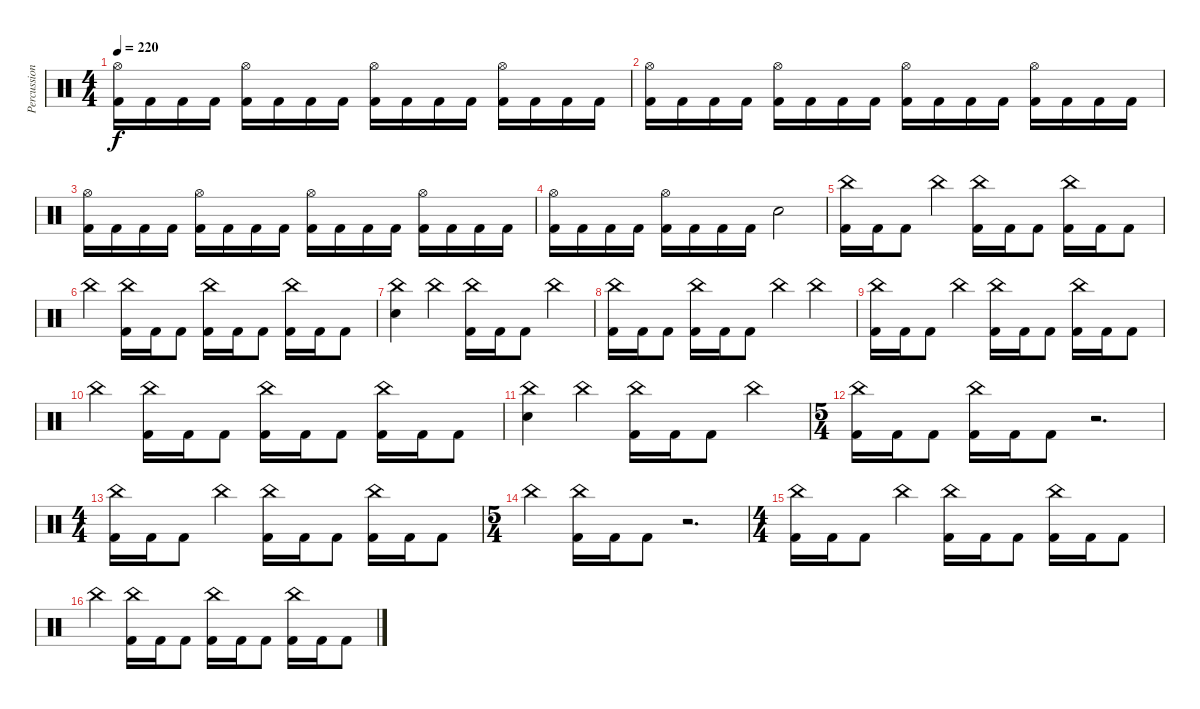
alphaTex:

\track ("Percussion" "Percussion") {instrument percussion}
\staff {score}
\articulation defaults
\ts (4 4)
\tempo 220
\clef neutral
\ks c
("Hi-Hat (open)" "Kick (hit) 2").16{dy f} "Kick (hit) 2".16 "Kick (hit) 2".16 "Kick (hit) 2".16 ("Hi-Hat (open)" "Kick (hit) 2").16 "Kick (hit) 2".16 "Kick (hit) 2".16 "Kick (hit) 2".16 ("Hi-Hat (open)" "Kick (hit) 2").16 "Kick (hit) 2".16 "Kick (hit) 2".16 "Kick (hit) 2".16 ("Hi-Hat (open)" "Kick (hit) 2").16 "Kick (hit) 2".16 "Kick (hit) 2".16 "Kick (hit) 2".16 |
("Hi-Hat (open)" "Kick (hit) 2").16 "Kick (hit) 2".16 "Kick (hit) 2".16 "Kick (hit) 2".16 ("Hi-Hat (open)" "Kick (hit) 2").16 "Kick (hit) 2".16 "Kick (hit) 2".16 "Kick (hit) 2".16 ("Hi-Hat (open)" "Kick (hit) 2").16 "Kick (hit) 2".16 "Kick (hit) 2".16 "Kick (hit) 2".16 ("Hi-Hat (open)" "Kick (hit) 2").16 "Kick (hit) 2".16 "Kick (hit) 2".16 "Kick (hit) 2".16 |
("Hi-Hat (open)" "Kick (hit) 2").16 "Kick (hit) 2".16 "Kick (hit) 2".16 "Kick (hit) 2".16 ("Hi-Hat (open)" "Kick (hit) 2").16 "Kick (hit) 2".16 "Kick (hit) 2".16 "Kick (hit) 2".16 ("Hi-Hat (open)" "Kick (hit) 2").16 "Kick (hit) 2".16 "Kick (hit) 2".16 "Kick (hit) 2".16 ("Hi-Hat (open)" "Kick (hit) 2").16 "Kick (hit) 2".16 "Kick (hit) 2".16 "Kick (hit) 2".16 |
("Hi-Hat (open)" "Kick (hit) 2").16 "Kick (hit) 2".16 "Kick (hit) 2".16 "Kick (hit) 2".16 ("Hi-Hat (open)" "Kick (hit) 2").16 "Kick (hit) 2".16 "Kick (hit) 2".16 "Kick (hit) 2".16 "Electric Snare (hit)".2 |
("China (hit)" "Kick (hit) 2").16 "Kick (hit) 2".16 "Kick (hit) 2".8 "China (hit)".4 ("China (hit)" "Kick (hit) 2").16 "Kick (hit) 2".16 "Kick (hit) 2".8 ("China (hit)" "Kick (hit) 2").16 "Kick (hit) 2".16 "Kick (hit) 2".8 |
"China (hit)".4 ("China (hit)" "Kick (hit) 2").16 "Kick (hit) 2".16 "Kick (hit) 2".8 ("China (hit)" "Kick (hit) 2").16 "Kick (hit) 2".16 "Kick (hit) 2".8 ("China (hit)" "Kick (hit) 2").16 "Kick (hit) 2".16 "Kick (hit) 2".8 |
("China (hit)" "Electric Snare (hit)").4 "China (hit)".4 ("China (hit)" "Kick (hit) 2").16 "Kick (hit) 2".16 "Kick (hit) 2".8 "China (hit)".4 |
("China (hit)" "Kick (hit) 2").16 "Kick (hit) 2".16 "Kick (hit) 2".8 ("China (hit)" "Kick (hit) 2").16 "Kick (hit) 2".16 "Kick (hit) 2".8 "China (hit)".4 "China (hit)".4 |
("China (hit)" "Kick (hit) 2").16 "Kick (hit) 2".16 "Kick (hit) 2".8 "China (hit)".4 ("China (hit)" "Kick (hit) 2").16 "Kick (hit) 2".16 "Kick (hit) 2".8 ("China (hit)" "Kick (hit) 2").16 "Kick (hit) 2".16 "Kick (hit) 2".8 |
"China (hit)".4 ("China (hit)" "Kick (hit) 2").16 "Kick (hit) 2".16 "Kick (hit) 2".8 ("China (hit)" "Kick (hit) 2").16 "Kick (hit) 2".16 "Kick (hit) 2".8 ("China (hit)" "Kick (hit) 2").16 "Kick (hit) 2".16 "Kick (hit) 2".8 |
("China (hit)" "Electric Snare (hit)").4 "China (hit)".4 ("China (hit)" "Kick (hit) 2").16 "Kick (hit) 2".16 "Kick (hit) 2".8 "China (hit)".4 |
\ts (5 4)
("China (hit)" "Kick (hit) 2").16 "Kick (hit) 2".16 "Kick (hit) 2".8 ("China (hit)" "Kick (hit) 2").16 "Kick (hit) 2".16 "Kick (hit) 2".8 r.2{d} |
\ts (4 4)
("China (hit)" "Kick (hit) 2").16 "Kick (hit) 2".16 "Kick (hit) 2".8 "China (hit)".4 ("China (hit)" "Kick (hit) 2").16 "Kick (hit) 2".16 "Kick (hit) 2".8 ("China (hit)" "Kick (hit) 2").16 "Kick (hit) 2".16 "Kick (hit) 2".8 |
\ts (5 4)
"China (hit)".4 ("China (hit)" "Kick (hit) 2").16 "Kick (hit) 2".16 "Kick (hit) 2".8 r.2{d} |
\ts (4 4)
("China (hit)" "Kick (hit) 2").16 "Kick (hit) 2".16 "Kick (hit) 2".8 "China (hit)".4 ("China (hit)" "Kick (hit) 2").16 "Kick (hit) 2".16 "Kick (hit) 2".8 ("China (hit)" "Kick (hit) 2").16 "Kick (hit) 2".16 "Kick (hit) 2".8 |
"China (hit)".4 ("China (hit)" "Kick (hit) 2").16 "Kick (hit) 2".16 "Kick (hit) 2".8 ("China (hit)" "Kick (hit) 2").16 "Kick (hit) 2".16 "Kick (hit) 2".8 ("China (hit)" "Kick (hit) 2").16 "Kick (hit) 2".16 "Kick (hit) 2".8
